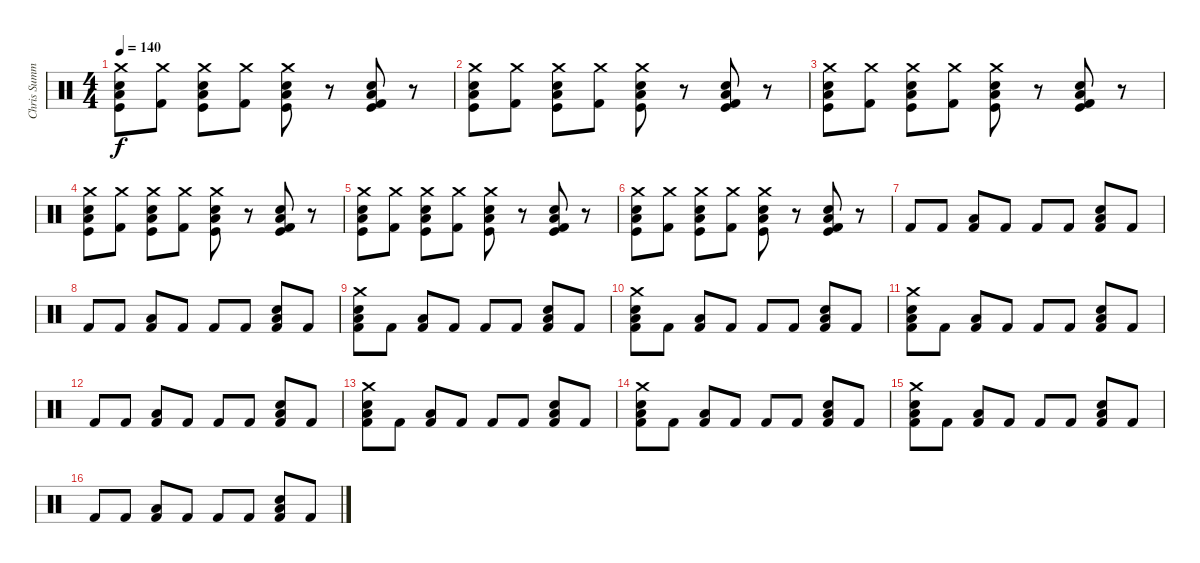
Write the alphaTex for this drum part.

\track ("Chris Summers" "Chris Summ") {instrument percussion}
\staff {score}
\articulation defaults
\ts (4 4)
\tempo 140
\clef neutral
\ks c
("Crash medium (hit)" "Low Floor Tom (hit)" "Snare (hit) 2" "Kick (hit)").8{dy f} ("Crash medium (hit)" "Kick (hit) 2").8 ("Crash medium (hit)" "Low Floor Tom (hit)" "Snare (hit) 2" "Kick (hit)").8 ("Crash medium (hit)" "Kick (hit) 2").8 ("Crash medium (hit)" "Low Floor Tom (hit)" "Snare (hit) 2" "Kick (hit)").8 r.8 ("Kick (hit)" "Low Floor Tom (hit)" "Snare (hit) 2" "Kick (hit) 2").8 r.8 |
("Crash medium (hit)" "Low Floor Tom (hit)" "Snare (hit) 2" "Kick (hit)").8 ("Crash medium (hit)" "Kick (hit) 2").8 ("Crash medium (hit)" "Low Floor Tom (hit)" "Snare (hit) 2" "Kick (hit)").8 ("Crash medium (hit)" "Kick (hit) 2").8 ("Crash medium (hit)" "Low Floor Tom (hit)" "Snare (hit) 2" "Kick (hit)").8 r.8 ("Kick (hit)" "Low Floor Tom (hit)" "Snare (hit) 2" "Kick (hit) 2").8 r.8 |
("Crash medium (hit)" "Low Floor Tom (hit)" "Snare (hit) 2" "Kick (hit)").8 ("Crash medium (hit)" "Kick (hit) 2").8 ("Crash medium (hit)" "Low Floor Tom (hit)" "Snare (hit) 2" "Kick (hit)").8 ("Crash medium (hit)" "Kick (hit) 2").8 ("Crash medium (hit)" "Low Floor Tom (hit)" "Snare (hit) 2" "Kick (hit)").8 r.8 ("Kick (hit)" "Low Floor Tom (hit)" "Snare (hit) 2" "Kick (hit) 2").8 r.8 |
("Crash medium (hit)" "Low Floor Tom (hit)" "Snare (hit) 2" "Kick (hit)").8 ("Crash medium (hit)" "Kick (hit) 2").8 ("Crash medium (hit)" "Low Floor Tom (hit)" "Snare (hit) 2" "Kick (hit)").8 ("Crash medium (hit)" "Kick (hit) 2").8 ("Crash medium (hit)" "Low Floor Tom (hit)" "Snare (hit) 2" "Kick (hit)").8 r.8 ("Kick (hit)" "Low Floor Tom (hit)" "Snare (hit) 2" "Kick (hit) 2").8 r.8 |
("Crash medium (hit)" "Low Floor Tom (hit)" "Snare (hit) 2" "Kick (hit)").8 ("Crash medium (hit)" "Kick (hit) 2").8 ("Crash medium (hit)" "Low Floor Tom (hit)" "Snare (hit) 2" "Kick (hit)").8 ("Crash medium (hit)" "Kick (hit) 2").8 ("Crash medium (hit)" "Low Floor Tom (hit)" "Snare (hit) 2" "Kick (hit)").8 r.8 ("Kick (hit)" "Low Floor Tom (hit)" "Snare (hit) 2" "Kick (hit) 2").8 r.8 |
("Crash medium (hit)" "Low Floor Tom (hit)" "Snare (hit) 2" "Kick (hit)").8 ("Crash medium (hit)" "Kick (hit) 2").8 ("Crash medium (hit)" "Low Floor Tom (hit)" "Snare (hit) 2" "Kick (hit)").8 ("Crash medium (hit)" "Kick (hit) 2").8 ("Crash medium (hit)" "Low Floor Tom (hit)" "Snare (hit) 2" "Kick (hit)").8 r.8 ("Kick (hit)" "Low Floor Tom (hit)" "Snare (hit) 2" "Kick (hit) 2").8 r.8 |
"Kick (hit) 2".8 "Kick (hit) 2".8 ("Low Floor Tom (hit)" "Kick (hit) 2").8 "Kick (hit) 2".8 "Kick (hit) 2".8 "Kick (hit) 2".8 ("Snare (hit) 2" "Low Floor Tom (hit)" "Kick (hit) 2").8 "Kick (hit) 2".8 |
"Kick (hit) 2".8 "Kick (hit) 2".8 ("Low Floor Tom (hit)" "Kick (hit) 2").8 "Kick (hit) 2".8 "Kick (hit) 2".8 "Kick (hit) 2".8 ("Snare (hit) 2" "Low Floor Tom (hit)" "Kick (hit) 2").8 "Kick (hit) 2".8 |
("Snare (hit) 2" "Crash medium (hit)" "Low Floor Tom (hit)" "Kick (hit) 2").8 "Kick (hit) 2".8 ("Low Floor Tom (hit)" "Kick (hit) 2").8 "Kick (hit) 2".8 "Kick (hit) 2".8 "Kick (hit) 2".8 ("Snare (hit) 2" "Low Floor Tom (hit)" "Kick (hit) 2").8 "Kick (hit) 2".8 |
("Snare (hit) 2" "Crash medium (hit)" "Low Floor Tom (hit)" "Kick (hit) 2").8 "Kick (hit) 2".8 ("Low Floor Tom (hit)" "Kick (hit) 2").8 "Kick (hit) 2".8 "Kick (hit) 2".8 "Kick (hit) 2".8 ("Snare (hit) 2" "Low Floor Tom (hit)" "Kick (hit) 2").8 "Kick (hit) 2".8 |
("Snare (hit) 2" "Crash medium (hit)" "Low Floor Tom (hit)" "Kick (hit) 2").8 "Kick (hit) 2".8 ("Low Floor Tom (hit)" "Kick (hit) 2").8 "Kick (hit) 2".8 "Kick (hit) 2".8 "Kick (hit) 2".8 ("Snare (hit) 2" "Low Floor Tom (hit)" "Kick (hit) 2").8 "Kick (hit) 2".8 |
"Kick (hit) 2".8 "Kick (hit) 2".8 ("Low Floor Tom (hit)" "Kick (hit) 2").8 "Kick (hit) 2".8 "Kick (hit) 2".8 "Kick (hit) 2".8 ("Snare (hit) 2" "Low Floor Tom (hit)" "Kick (hit) 2").8 "Kick (hit) 2".8 |
("Snare (hit) 2" "Crash medium (hit)" "Low Floor Tom (hit)" "Kick (hit) 2").8 "Kick (hit) 2".8 ("Low Floor Tom (hit)" "Kick (hit) 2").8 "Kick (hit) 2".8 "Kick (hit) 2".8 "Kick (hit) 2".8 ("Snare (hit) 2" "Low Floor Tom (hit)" "Kick (hit) 2").8 "Kick (hit) 2".8 |
("Snare (hit) 2" "Crash medium (hit)" "Low Floor Tom (hit)" "Kick (hit) 2").8 "Kick (hit) 2".8 ("Low Floor Tom (hit)" "Kick (hit) 2").8 "Kick (hit) 2".8 "Kick (hit) 2".8 "Kick (hit) 2".8 ("Snare (hit) 2" "Low Floor Tom (hit)" "Kick (hit) 2").8 "Kick (hit) 2".8 |
("Snare (hit) 2" "Crash medium (hit)" "Low Floor Tom (hit)" "Kick (hit) 2").8 "Kick (hit) 2".8 ("Low Floor Tom (hit)" "Kick (hit) 2").8 "Kick (hit) 2".8 "Kick (hit) 2".8 "Kick (hit) 2".8 ("Snare (hit) 2" "Low Floor Tom (hit)" "Kick (hit) 2").8 "Kick (hit) 2".8 |
"Kick (hit) 2".8 "Kick (hit) 2".8 ("Low Floor Tom (hit)" "Kick (hit) 2").8 "Kick (hit) 2".8 "Kick (hit) 2".8 "Kick (hit) 2".8 ("Snare (hit) 2" "Low Floor Tom (hit)" "Kick (hit) 2").8 "Kick (hit) 2".8
